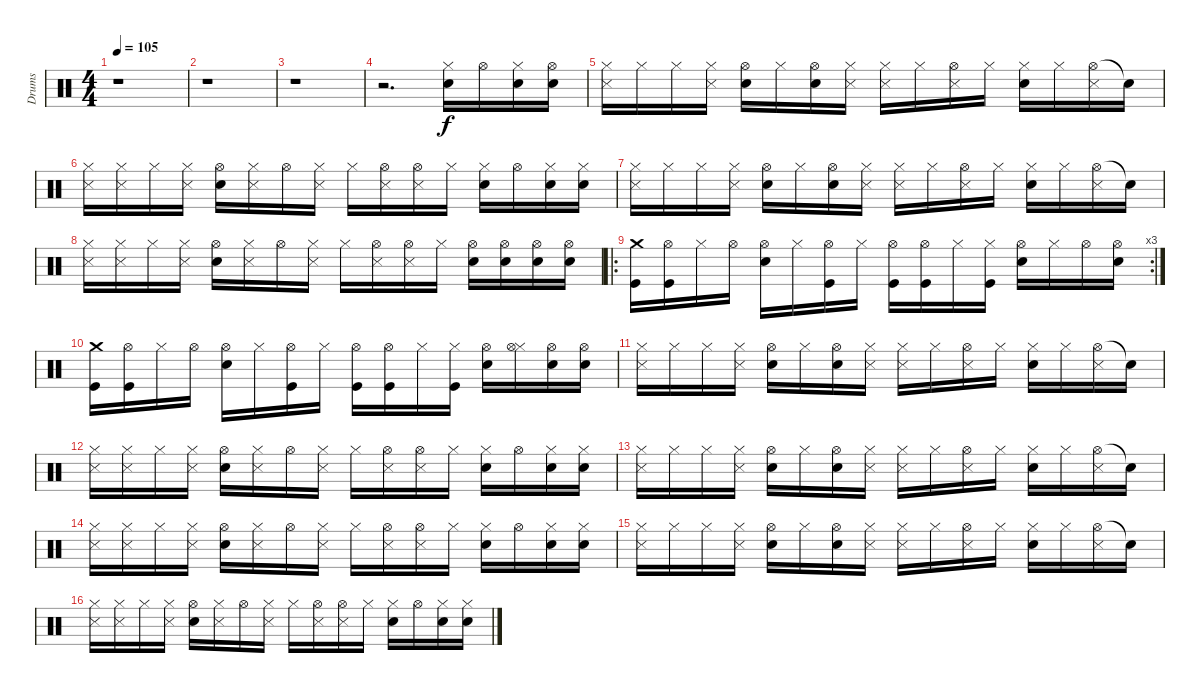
\track ("Drums" "Drums") {instrument percussion}
\staff {score}
\articulation defaults
\ts (4 4)
\tempo 105
\clef neutral
\ks c
r.1{dy f} |
r.1 |
r.1 |
r.2{d} ("Hi-Hat (closed)" "Metronome (bell)").16 "Hi-Hat (open)".16 ("Hi-Hat (closed)" "Metronome (bell)").16 ("Hi-Hat (open)" "Metronome (bell)").16 |
("Hi-Hat (closed)" "Metronome (hit)").16 "Hi-Hat (closed)".16 "Hi-Hat (closed)".16 ("Hi-Hat (closed)" "Metronome (hit)").16 ("Hi-Hat (open)" "Metronome (bell)").16 "Hi-Hat (closed)".16 ("Hi-Hat (open)" "Metronome (bell)").16 ("Hi-Hat (closed)" "Metronome (hit)").16 ("Hi-Hat (closed)" "Metronome (hit)").16 "Hi-Hat (closed)".16 ("Hi-Hat (open)" "Metronome (hit)").16 "Hi-Hat (closed)".16 ("Hi-Hat (closed)" "Metronome (bell)").16 "Hi-Hat (closed)".16 ("Hi-Hat (open)" "Metronome (hit)").16 "Snare (hit)"{t}.16 |
("Hi-Hat (closed)" "Metronome (hit)").16 ("Hi-Hat (closed)" "Metronome (hit)").16 "Hi-Hat (closed)".16 ("Hi-Hat (closed)" "Metronome (hit)").16 ("Hi-Hat (open)" "Metronome (bell)").16 ("Hi-Hat (closed)" "Metronome (hit)").16 "Hi-Hat (open)".16 ("Hi-Hat (closed)" "Metronome (hit)").16 "Hi-Hat (closed)".16 ("Hi-Hat (open)" "Metronome (hit)").16 ("Hi-Hat (open)" "Metronome (hit)").16 "Hi-Hat (closed)".16 ("Hi-Hat (closed)" "Metronome (bell)").16 "Hi-Hat (open)".16 ("Hi-Hat (closed)" "Metronome (bell)").16 ("Hi-Hat (closed)" "Metronome (bell)").16 |
("Hi-Hat (closed)" "Metronome (hit)").16 "Hi-Hat (closed)".16 "Hi-Hat (closed)".16 ("Hi-Hat (closed)" "Metronome (hit)").16 ("Hi-Hat (open)" "Metronome (bell)").16 "Hi-Hat (closed)".16 ("Hi-Hat (open)" "Metronome (bell)").16 ("Hi-Hat (closed)" "Metronome (hit)").16 ("Hi-Hat (closed)" "Metronome (hit)").16 "Hi-Hat (closed)".16 ("Hi-Hat (open)" "Metronome (hit)").16 "Hi-Hat (closed)".16 ("Hi-Hat (closed)" "Metronome (bell)").16 "Hi-Hat (closed)".16 ("Hi-Hat (open)" "Metronome (hit)").16 "Snare (hit)"{t}.16 |
("Hi-Hat (closed)" "Metronome (hit)").16 ("Hi-Hat (closed)" "Metronome (hit)").16 "Hi-Hat (closed)".16 ("Hi-Hat (closed)" "Metronome (hit)").16 ("Hi-Hat (open)" "Metronome (bell)").16 ("Hi-Hat (closed)" "Metronome (hit)").16 "Hi-Hat (open)".16 ("Hi-Hat (closed)" "Metronome (hit)").16 "Hi-Hat (closed)".16 ("Hi-Hat (open)" "Metronome (hit)").16 ("Hi-Hat (open)" "Metronome (hit)").16 "Hi-Hat (closed)".16 ("Hi-Hat (open)" "Metronome (bell)").16 ("Hi-Hat (open)" "Metronome (bell)").16 ("Hi-Hat (open)" "Metronome (bell)").16 ("Hi-Hat (open)" "Metronome (bell)").16 |
\ro
\rc 3
("Crash medium (hit)" "Kick (hit)").16 ("Hi-Hat (open)" "Kick (hit)").16 "Hi-Hat (closed)".16 "Hi-Hat (open)".16 ("Hi-Hat (open)" "Electric Snare (hit)").16 "Hi-Hat (closed)".16 ("Hi-Hat (open)" "Kick (hit)").16 "Hi-Hat (closed)".16 ("Hi-Hat (open)" "Kick (hit)").16 ("Hi-Hat (open)" "Kick (hit)").16 "Hi-Hat (closed)".16 ("Hi-Hat (closed)" "Kick (hit)").16 ("Hi-Hat (open)" "Electric Snare (hit)").16 "Hi-Hat (closed)".16 "Hi-Hat (open)".16 ("Hi-Hat (open)" "Electric Snare (hit)").16 |
("Crash medium (hit)" "Kick (hit)").16 ("Hi-Hat (open)" "Kick (hit)").16 "Hi-Hat (closed)".16 "Hi-Hat (open)".16 ("Hi-Hat (open)" "Electric Snare (hit)").16 "Hi-Hat (closed)".16 ("Hi-Hat (open)" "Kick (hit)").16 "Hi-Hat (closed)".16 ("Hi-Hat (open)" "Kick (hit)").16 ("Hi-Hat (open)" "Kick (hit)").16 "Hi-Hat (closed)".16 ("Hi-Hat (closed)" "Kick (hit)").16 ("Hi-Hat (open)" "Electric Snare (hit)").16 ("Hi-Hat (closed)" "Hi-Hat (open)").16 ("Hi-Hat (open)" "Electric Snare (hit)").16 ("Hi-Hat (open)" "Electric Snare (hit)").16 |
("Hi-Hat (closed)" "Metronome (hit)").16 "Hi-Hat (closed)".16 "Hi-Hat (closed)".16 ("Hi-Hat (closed)" "Metronome (hit)").16 ("Hi-Hat (open)" "Metronome (bell)").16 "Hi-Hat (closed)".16 ("Hi-Hat (open)" "Metronome (bell)").16 ("Hi-Hat (closed)" "Metronome (hit)").16 ("Hi-Hat (closed)" "Metronome (hit)").16 "Hi-Hat (closed)".16 ("Hi-Hat (open)" "Metronome (hit)").16 "Hi-Hat (closed)".16 ("Hi-Hat (closed)" "Metronome (bell)").16 "Hi-Hat (closed)".16 ("Hi-Hat (open)" "Metronome (hit)").16 "Snare (hit)"{t}.16 |
("Hi-Hat (closed)" "Metronome (hit)").16 ("Hi-Hat (closed)" "Metronome (hit)").16 "Hi-Hat (closed)".16 ("Hi-Hat (closed)" "Metronome (hit)").16 ("Hi-Hat (open)" "Metronome (bell)").16 ("Hi-Hat (closed)" "Metronome (hit)").16 "Hi-Hat (open)".16 ("Hi-Hat (closed)" "Metronome (hit)").16 "Hi-Hat (closed)".16 ("Hi-Hat (open)" "Metronome (hit)").16 ("Hi-Hat (open)" "Metronome (hit)").16 "Hi-Hat (closed)".16 ("Hi-Hat (closed)" "Metronome (bell)").16 "Hi-Hat (open)".16 ("Hi-Hat (closed)" "Metronome (bell)").16 ("Hi-Hat (closed)" "Metronome (bell)").16 |
("Hi-Hat (closed)" "Metronome (hit)").16 "Hi-Hat (closed)".16 "Hi-Hat (closed)".16 ("Hi-Hat (closed)" "Metronome (hit)").16 ("Hi-Hat (open)" "Metronome (bell)").16 "Hi-Hat (closed)".16 ("Hi-Hat (open)" "Metronome (bell)").16 ("Hi-Hat (closed)" "Metronome (hit)").16 ("Hi-Hat (closed)" "Metronome (hit)").16 "Hi-Hat (closed)".16 ("Hi-Hat (open)" "Metronome (hit)").16 "Hi-Hat (closed)".16 ("Hi-Hat (closed)" "Metronome (bell)").16 "Hi-Hat (closed)".16 ("Hi-Hat (open)" "Metronome (hit)").16 "Snare (hit)"{t}.16 |
("Hi-Hat (closed)" "Metronome (hit)").16 ("Hi-Hat (closed)" "Metronome (hit)").16 "Hi-Hat (closed)".16 ("Hi-Hat (closed)" "Metronome (hit)").16 ("Hi-Hat (open)" "Metronome (bell)").16 ("Hi-Hat (closed)" "Metronome (hit)").16 "Hi-Hat (open)".16 ("Hi-Hat (closed)" "Metronome (hit)").16 "Hi-Hat (closed)".16 ("Hi-Hat (open)" "Metronome (hit)").16 ("Hi-Hat (open)" "Metronome (hit)").16 "Hi-Hat (closed)".16 ("Hi-Hat (closed)" "Metronome (bell)").16 "Hi-Hat (open)".16 ("Hi-Hat (closed)" "Metronome (bell)").16 ("Hi-Hat (closed)" "Metronome (bell)").16 |
("Hi-Hat (closed)" "Metronome (hit)").16 "Hi-Hat (closed)".16 "Hi-Hat (closed)".16 ("Hi-Hat (closed)" "Metronome (hit)").16 ("Hi-Hat (open)" "Metronome (bell)").16 "Hi-Hat (closed)".16 ("Hi-Hat (open)" "Metronome (bell)").16 ("Hi-Hat (closed)" "Metronome (hit)").16 ("Hi-Hat (closed)" "Metronome (hit)").16 "Hi-Hat (closed)".16 ("Hi-Hat (open)" "Metronome (hit)").16 "Hi-Hat (closed)".16 ("Hi-Hat (closed)" "Metronome (bell)").16 "Hi-Hat (closed)".16 ("Hi-Hat (open)" "Metronome (hit)").16 "Snare (hit)"{t}.16 |
("Hi-Hat (closed)" "Metronome (hit)").16 ("Hi-Hat (closed)" "Metronome (hit)").16 "Hi-Hat (closed)".16 ("Hi-Hat (closed)" "Metronome (hit)").16 ("Hi-Hat (open)" "Metronome (bell)").16 ("Hi-Hat (closed)" "Metronome (hit)").16 "Hi-Hat (open)".16 ("Hi-Hat (closed)" "Metronome (hit)").16 "Hi-Hat (closed)".16 ("Hi-Hat (open)" "Metronome (hit)").16 ("Hi-Hat (open)" "Metronome (hit)").16 "Hi-Hat (closed)".16 ("Hi-Hat (closed)" "Metronome (bell)").16 "Hi-Hat (open)".16 ("Hi-Hat (closed)" "Metronome (bell)").16 ("Hi-Hat (closed)" "Metronome (bell)").16
